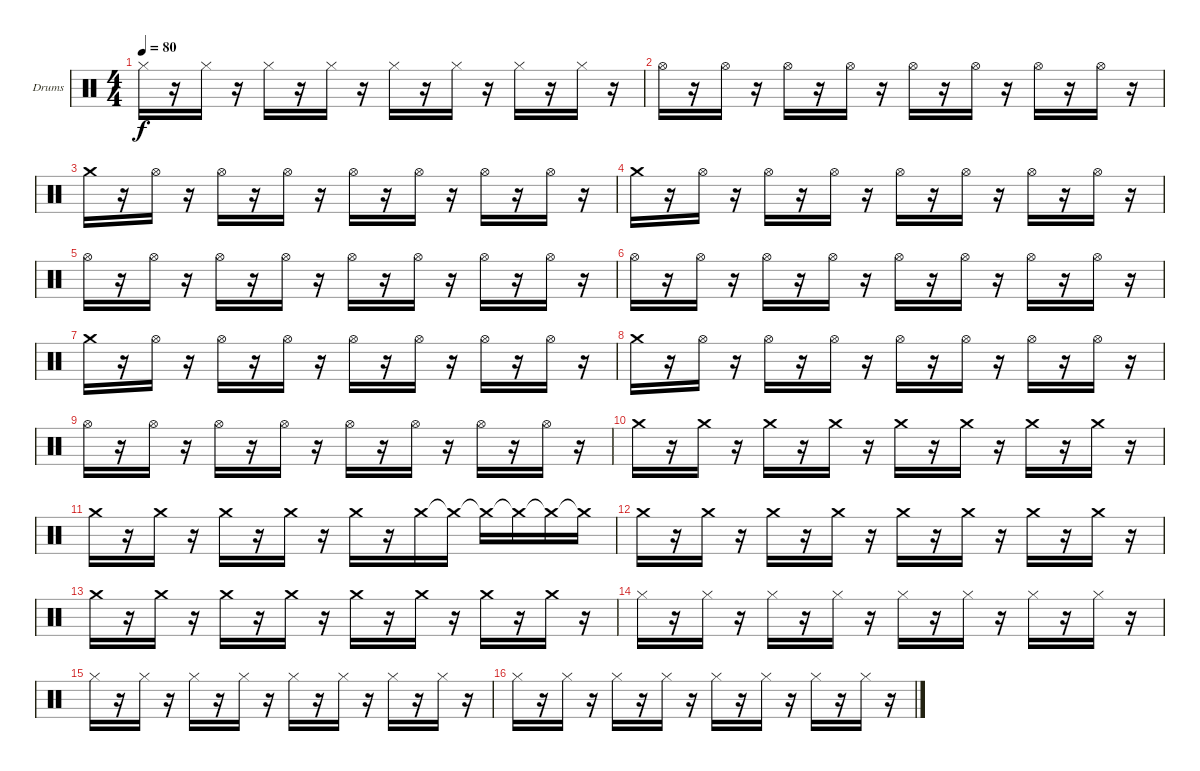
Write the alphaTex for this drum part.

\bracketExtendMode groupsimilarinstruments
\firstSystemTrackNameOrientation horizontal
\otherSystemsTrackNameOrientation horizontal
\track ("Drumkit" "Drums") {instrument percussion}
\staff {score}
\articulation defaults
\ts (4 4)
\tempo 80
\clef neutral
\scale
0.333333
\ks c "Hi-Hat (closed)".16{dy f}
r.16 "Hi-Hat (closed)".16 r.16 "Hi-Hat (closed)".16 r.16 "Hi-Hat (closed)".16 r.16 "Hi-Hat (closed)".16 r.16 "Hi-Hat (closed)".16 r.16 "Hi-Hat (closed)".16 r.16 "Hi-Hat (closed)".16 r.16 |
\scale
0.333333 "Hi-Hat (open)".16 r.16 "Hi-Hat (open)".16 r.16 "Hi-Hat (open)".16 r.16 "Hi-Hat (open)".16 r.16 "Hi-Hat (open)".16 r.16 "Hi-Hat (open)".16 r.16 "Hi-Hat (open)".16 r.16 "Hi-Hat (open)".16 r.16 |
\scale
0.333333 "Crash medium (hit)".16 r.16 "Hi-Hat (open)".16 r.16 "Hi-Hat (open)".16 r.16 "Hi-Hat (open)".16 r.16 "Hi-Hat (open)".16 r.16 "Hi-Hat (open)".16 r.16 "Hi-Hat (open)".16 r.16 "Hi-Hat (open)".16 r.16 |
\scale
0.333333 "Crash medium (hit)".16 r.16 "Hi-Hat (open)".16 r.16 "Hi-Hat (open)".16 r.16 "Hi-Hat (open)".16 r.16 "Hi-Hat (open)".16 r.16 "Hi-Hat (open)".16 r.16 "Hi-Hat (open)".16 r.16 "Hi-Hat (open)".16 r.16 |
\scale
0.333333 "Hi-Hat (open)".16 r.16 "Hi-Hat (open)".16 r.16 "Hi-Hat (open)".16 r.16 "Hi-Hat (open)".16 r.16 "Hi-Hat (open)".16 r.16 "Hi-Hat (open)".16 r.16 "Hi-Hat (open)".16 r.16 "Hi-Hat (open)".16 r.16 |
\scale
0.333333 "Hi-Hat (open)".16 r.16 "Hi-Hat (open)".16 r.16 "Hi-Hat (open)".16 r.16 "Hi-Hat (open)".16 r.16 "Hi-Hat (open)".16 r.16 "Hi-Hat (open)".16 r.16 "Hi-Hat (open)".16 r.16 "Hi-Hat (open)".16 r.16 |
\scale
0.333333 "Crash medium (hit)".16 r.16 "Hi-Hat (open)".16 r.16 "Hi-Hat (open)".16 r.16 "Hi-Hat (open)".16 r.16 "Hi-Hat (open)".16 r.16 "Hi-Hat (open)".16 r.16 "Hi-Hat (open)".16 r.16 "Hi-Hat (open)".16 r.16 |
\scale
0.333333 "Crash medium (hit)".16 r.16 "Hi-Hat (open)".16 r.16 "Hi-Hat (open)".16 r.16 "Hi-Hat (open)".16 r.16 "Hi-Hat (open)".16 r.16 "Hi-Hat (open)".16 r.16 "Hi-Hat (open)".16 r.16 "Hi-Hat (open)".16 r.16 |
\scale
0.333333 "Hi-Hat (open)".16 r.16 "Hi-Hat (open)".16 r.16 "Hi-Hat (open)".16 r.16 "Hi-Hat (open)".16 r.16 "Hi-Hat (open)".16 r.16 "Hi-Hat (open)".16 r.16 "Hi-Hat (open)".16 r.16 "Hi-Hat (open)".16 r.16 |
\scale
0.333333 "Crash medium (hit)".16 r.16 "Crash medium (hit)".16 r.16 "Crash medium (hit)".16 r.16 "Crash medium (hit)".16 r.16 "Crash medium (hit)".16 r.16 "Crash medium (hit)".16 r.16 "Crash medium (hit)".16 r.16 "Crash medium (hit)".16 r.16 |
\scale
0.333333 "Crash medium (hit)".16 r.16 "Crash medium (hit)".16 r.16 "Crash medium (hit)".16 r.16 "Crash medium (hit)".16 r.16 "Crash medium (hit)".16 r.16 "Crash medium (hit)".16 "Crash medium (hit)"{t}.16 "Crash medium (hit)"{t}.16 "Crash medium (hit)"{t}.16 "Crash medium (hit)"{t}.16 "Crash medium (hit)"{t}.16 |
\scale
0.333333 "Crash medium (hit)".16 r.16 "Crash medium (hit)".16 r.16 "Crash medium (hit)".16 r.16 "Crash medium (hit)".16 r.16 "Crash medium (hit)".16 r.16 "Crash medium (hit)".16 r.16 "Crash medium (hit)".16 r.16 "Crash medium (hit)".16 r.16 |
\scale
0.333333 "Crash medium (hit)".16 r.16 "Crash medium (hit)".16 r.16 "Crash medium (hit)".16 r.16 "Crash medium (hit)".16 r.16 "Crash medium (hit)".16 r.16 "Crash medium (hit)".16 r.16 "Crash medium (hit)".16 r.16 "Crash medium (hit)".16 r.16 |
\scale
0.333333 "Hi-Hat (closed)".16 r.16 "Hi-Hat (closed)".16 r.16 "Hi-Hat (closed)".16 r.16 "Hi-Hat (closed)".16 r.16 "Hi-Hat (closed)".16 r.16 "Hi-Hat (closed)".16 r.16 "Hi-Hat (closed)".16 r.16 "Hi-Hat (closed)".16 r.16 |
\scale
0.333333 "Hi-Hat (closed)".16 r.16 "Hi-Hat (closed)".16 r.16 "Hi-Hat (closed)".16 r.16 "Hi-Hat (closed)".16 r.16 "Hi-Hat (closed)".16 r.16 "Hi-Hat (closed)".16 r.16 "Hi-Hat (closed)".16 r.16 "Hi-Hat (closed)".16 r.16 |
\scale
0.333333 "Hi-Hat (closed)".16 r.16 "Hi-Hat (closed)".16 r.16 "Hi-Hat (closed)".16 r.16 "Hi-Hat (closed)".16 r.16 "Hi-Hat (closed)".16 r.16 "Hi-Hat (closed)".16 r.16 "Hi-Hat (closed)".16 r.16 "Hi-Hat (closed)".16 r.16
